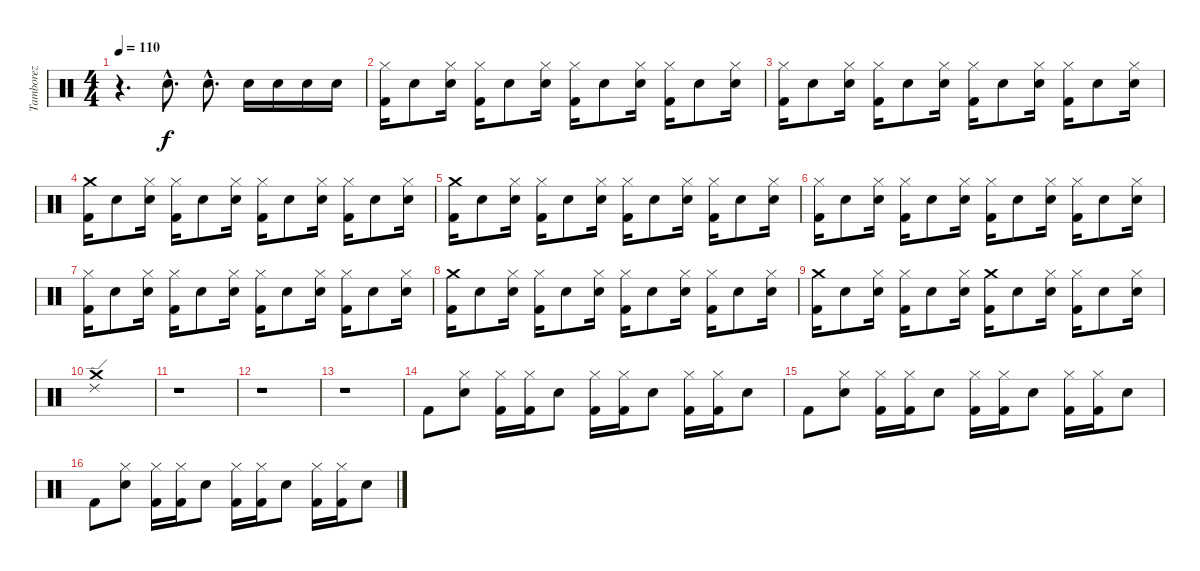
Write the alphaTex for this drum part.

\track ("Tamborez" "Tamborez") {instrument percussion}
\staff {score}
\articulation defaults
\ts (4 4)
\tempo 110
\clef neutral
\ks c
r.4{d dy f} "Electric Snare (hit)"{hac}.8{d} "Electric Snare (hit)"{hac}.8{d} "Electric Snare (hit)".16 "Electric Snare (hit)".16 "Electric Snare (hit)".16 "Electric Snare (hit)".16 |
("Hi-Hat (closed)" "Kick (hit) 2").16 "Electric Snare (hit)".8 ("Hi-Hat (closed)" "Electric Snare (hit)").16 ("Hi-Hat (closed)" "Kick (hit) 2").16 "Electric Snare (hit)".8 ("Hi-Hat (closed)" "Electric Snare (hit)").16 ("Hi-Hat (closed)" "Kick (hit) 2").16 "Electric Snare (hit)".8 ("Hi-Hat (closed)" "Electric Snare (hit)").16 ("Hi-Hat (closed)" "Kick (hit) 2").16 "Electric Snare (hit)".8 ("Hi-Hat (closed)" "Electric Snare (hit)").16 |
("Hi-Hat (closed)" "Kick (hit) 2").16 "Electric Snare (hit)".8 ("Hi-Hat (closed)" "Electric Snare (hit)").16 ("Hi-Hat (closed)" "Kick (hit) 2").16 "Electric Snare (hit)".8 ("Hi-Hat (closed)" "Electric Snare (hit)").16 ("Hi-Hat (closed)" "Kick (hit) 2").16 "Electric Snare (hit)".8 ("Hi-Hat (closed)" "Electric Snare (hit)").16 ("Hi-Hat (closed)" "Kick (hit) 2").16 "Electric Snare (hit)".8 ("Hi-Hat (closed)" "Electric Snare (hit)").16 |
("Crash medium (hit)" "Kick (hit) 2").16 "Electric Snare (hit)".8 ("Hi-Hat (closed)" "Electric Snare (hit)").16 ("Hi-Hat (closed)" "Kick (hit) 2").16 "Electric Snare (hit)".8 ("Hi-Hat (closed)" "Electric Snare (hit)").16 ("Hi-Hat (closed)" "Kick (hit) 2").16 "Electric Snare (hit)".8 ("Hi-Hat (closed)" "Electric Snare (hit)").16 ("Hi-Hat (closed)" "Kick (hit) 2").16 "Electric Snare (hit)".8 ("Hi-Hat (closed)" "Electric Snare (hit)").16 |
("Crash medium (hit)" "Kick (hit) 2").16 "Electric Snare (hit)".8 ("Hi-Hat (closed)" "Electric Snare (hit)").16 ("Hi-Hat (closed)" "Kick (hit) 2").16 "Electric Snare (hit)".8 ("Hi-Hat (closed)" "Electric Snare (hit)").16 ("Hi-Hat (closed)" "Kick (hit) 2").16 "Electric Snare (hit)".8 ("Hi-Hat (closed)" "Electric Snare (hit)").16 ("Hi-Hat (closed)" "Kick (hit) 2").16 "Electric Snare (hit)".8 ("Hi-Hat (closed)" "Electric Snare (hit)").16 |
("Hi-Hat (closed)" "Kick (hit) 2").16 "Electric Snare (hit)".8 ("Hi-Hat (closed)" "Electric Snare (hit)").16 ("Hi-Hat (closed)" "Kick (hit) 2").16 "Electric Snare (hit)".8 ("Hi-Hat (closed)" "Electric Snare (hit)").16 ("Hi-Hat (closed)" "Kick (hit) 2").16 "Electric Snare (hit)".8 ("Hi-Hat (closed)" "Electric Snare (hit)").16 ("Hi-Hat (closed)" "Kick (hit) 2").16 "Electric Snare (hit)".8 ("Hi-Hat (closed)" "Electric Snare (hit)").16 |
("Hi-Hat (closed)" "Kick (hit) 2").16 "Electric Snare (hit)".8 ("Hi-Hat (closed)" "Electric Snare (hit)").16 ("Hi-Hat (closed)" "Kick (hit) 2").16 "Electric Snare (hit)".8 ("Hi-Hat (closed)" "Electric Snare (hit)").16 ("Hi-Hat (closed)" "Kick (hit) 2").16 "Electric Snare (hit)".8 ("Hi-Hat (closed)" "Electric Snare (hit)").16 ("Hi-Hat (closed)" "Kick (hit) 2").16 "Electric Snare (hit)".8 ("Hi-Hat (closed)" "Electric Snare (hit)").16 |
("Crash medium (hit)" "Kick (hit) 2").16 "Electric Snare (hit)".8 ("Hi-Hat (closed)" "Electric Snare (hit)").16 ("Hi-Hat (closed)" "Kick (hit) 2").16 "Electric Snare (hit)".8 ("Hi-Hat (closed)" "Electric Snare (hit)").16 ("Hi-Hat (closed)" "Kick (hit) 2").16 "Electric Snare (hit)".8 ("Hi-Hat (closed)" "Electric Snare (hit)").16 ("Hi-Hat (closed)" "Kick (hit) 2").16 "Electric Snare (hit)".8 ("Hi-Hat (closed)" "Electric Snare (hit)").16 |
("Crash medium (hit)" "Kick (hit) 2").16 "Electric Snare (hit)".8 ("Hi-Hat (closed)" "Electric Snare (hit)").16 ("Hi-Hat (closed)" "Kick (hit) 2").16 "Electric Snare (hit)".8 ("Hi-Hat (closed)" "Electric Snare (hit)").16 ("Crash medium (hit)" "Kick (hit) 2").16 "Electric Snare (hit)".8 ("Hi-Hat (closed)" "Electric Snare (hit)").16 ("Hi-Hat (closed)" "Kick (hit) 2").16 "Electric Snare (hit)".8 ("Hi-Hat (closed)" "Electric Snare (hit)").16 |
("Ride (edge) 2" "Crash medium (hit)").1 |
r.1 |
r.1 |
r.1 |
"Kick (hit) 2".8 ("Electric Snare (hit)" "Hi-Hat (closed)").8 ("Kick (hit) 2" "Hi-Hat (closed)").16 ("Kick (hit) 2" "Hi-Hat (closed)").16 "Electric Snare (hit)".8 ("Kick (hit) 2" "Hi-Hat (closed)").16 ("Kick (hit) 2" "Hi-Hat (closed)").16 "Electric Snare (hit)".8 ("Kick (hit) 2" "Hi-Hat (closed)").16 ("Kick (hit) 2" "Hi-Hat (closed)").16 "Electric Snare (hit)".8 |
"Kick (hit) 2".8 ("Electric Snare (hit)" "Hi-Hat (closed)").8 ("Kick (hit) 2" "Hi-Hat (closed)").16 ("Kick (hit) 2" "Hi-Hat (closed)").16 "Electric Snare (hit)".8 ("Kick (hit) 2" "Hi-Hat (closed)").16 ("Kick (hit) 2" "Hi-Hat (closed)").16 "Electric Snare (hit)".8 ("Kick (hit) 2" "Hi-Hat (closed)").16 ("Kick (hit) 2" "Hi-Hat (closed)").16 "Electric Snare (hit)".8 |
"Kick (hit) 2".8 ("Electric Snare (hit)" "Hi-Hat (closed)").8 ("Kick (hit) 2" "Hi-Hat (closed)").16 ("Kick (hit) 2" "Hi-Hat (closed)").16 "Electric Snare (hit)".8 ("Kick (hit) 2" "Hi-Hat (closed)").16 ("Kick (hit) 2" "Hi-Hat (closed)").16 "Electric Snare (hit)".8 ("Kick (hit) 2" "Hi-Hat (closed)").16 ("Kick (hit) 2" "Hi-Hat (closed)").16 "Electric Snare (hit)".8
